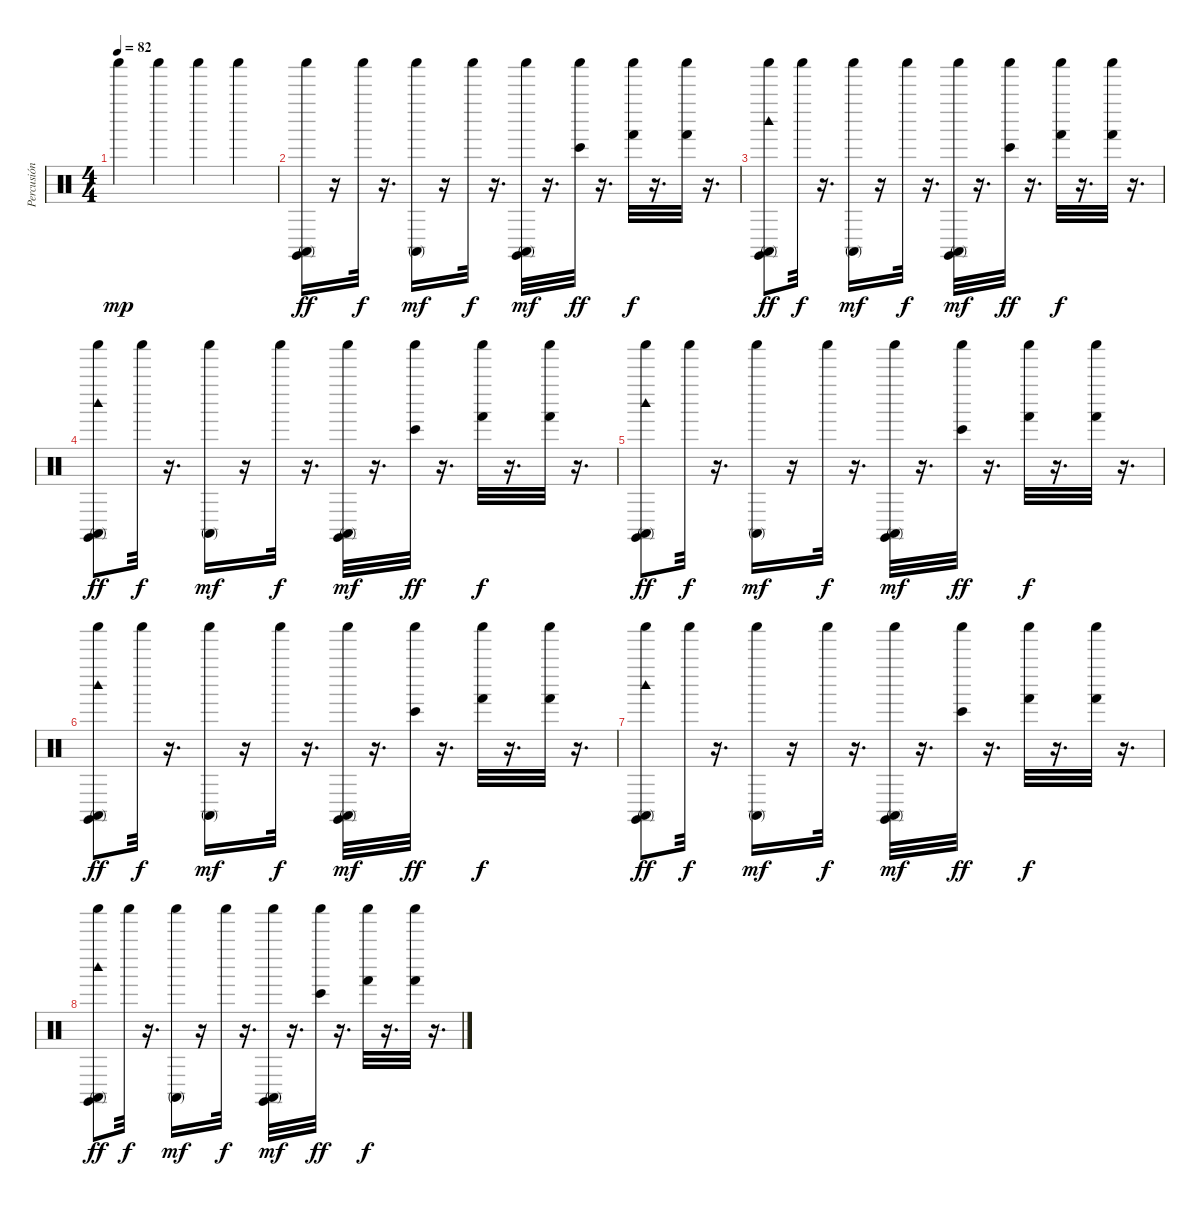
\track ("Percusión" "Percusión") {instrument percussion}
\staff {score}
\articulation defaults
\ts (4 4)
\tempo 82
\clef neutral
\ks c "Shaker (hit)".4{dy mp} "Shaker (hit)".4 "Shaker (hit)".4 "Shaker (hit)".4
|
("Conga high (mute)" "Shaker (hit)" "Claves (hit)").16{dy ff} r.16 "Shaker (hit)".32{dy f} r.16{d} ("Shaker (hit)" "Conga high (mute)").16{dy mf} r.16 "Shaker (hit)".32{dy f} r.16{d} ("Claves (hit)" "Shaker (hit)" "Conga high (mute)").32{dy mf} r.16{d} ("Shaker (hit)" "Bongo High (hit)").32{dy ff} r.16{d} ("Shaker (hit)" "Hand (hit)").32{dy f} r.16{d} ("Shaker (hit)" "Hand (hit)").32 r.16{d} |
("Woodblock high (hit)" "Conga high (mute)" "Shaker (hit)" "Claves (hit)").8{dy ff} "Shaker (hit)".32{dy f} r.16{d} ("Shaker (hit)" "Conga high (mute)").16{dy mf} r.16 "Shaker (hit)".32{dy f} r.16{d} ("Claves (hit)" "Shaker (hit)" "Conga high (mute)").32{dy mf} r.16{d} ("Shaker (hit)" "Bongo High (hit)").32{dy ff} r.16{d} ("Shaker (hit)" "Hand (hit)").32{dy f} r.16{d} ("Shaker (hit)" "Hand (hit)").32 r.16{d} |
("Woodblock high (hit)" "Conga high (mute)" "Shaker (hit)" "Claves (hit)").8{dy ff} "Shaker (hit)".32{dy f} r.16{d} ("Shaker (hit)" "Conga high (mute)").16{dy mf} r.16 "Shaker (hit)".32{dy f} r.16{d} ("Claves (hit)" "Shaker (hit)" "Conga high (mute)").32{dy mf} r.16{d} ("Shaker (hit)" "Bongo High (hit)").32{dy ff} r.16{d} ("Shaker (hit)" "Hand (hit)").32{dy f} r.16{d} ("Shaker (hit)" "Hand (hit)").32 r.16{d} |
("Woodblock high (hit)" "Conga high (mute)" "Shaker (hit)" "Claves (hit)").8{dy ff} "Shaker (hit)".32{dy f} r.16{d} ("Shaker (hit)" "Conga high (mute)").16{dy mf} r.16 "Shaker (hit)".32{dy f} r.16{d} ("Claves (hit)" "Shaker (hit)" "Conga high (mute)").32{dy mf} r.16{d} ("Shaker (hit)" "Bongo High (hit)").32{dy ff} r.16{d} ("Shaker (hit)" "Hand (hit)").32{dy f} r.16{d} ("Shaker (hit)" "Hand (hit)").32 r.16{d} |
("Woodblock high (hit)" "Conga high (mute)" "Shaker (hit)" "Claves (hit)").8{dy ff} "Shaker (hit)".32{dy f} r.16{d} ("Shaker (hit)" "Conga high (mute)").16{dy mf} r.16 "Shaker (hit)".32{dy f} r.16{d} ("Claves (hit)" "Shaker (hit)" "Conga high (mute)").32{dy mf} r.16{d} ("Shaker (hit)" "Bongo High (hit)").32{dy ff} r.16{d} ("Shaker (hit)" "Hand (hit)").32{dy f} r.16{d} ("Shaker (hit)" "Hand (hit)").32 r.16{d} |
("Woodblock high (hit)" "Conga high (mute)" "Shaker (hit)" "Claves (hit)").8{dy ff} "Shaker (hit)".32{dy f} r.16{d} ("Shaker (hit)" "Conga high (mute)").16{dy mf} r.16 "Shaker (hit)".32{dy f} r.16{d} ("Claves (hit)" "Shaker (hit)" "Conga high (mute)").32{dy mf} r.16{d} ("Shaker (hit)" "Bongo High (hit)").32{dy ff} r.16{d} ("Shaker (hit)" "Hand (hit)").32{dy f} r.16{d} ("Shaker (hit)" "Hand (hit)").32 r.16{d} |
("Woodblock high (hit)" "Conga high (mute)" "Shaker (hit)" "Claves (hit)").8{dy ff} "Shaker (hit)".32{dy f} r.16{d} ("Shaker (hit)" "Conga high (mute)").16{dy mf} r.16 "Shaker (hit)".32{dy f} r.16{d} ("Claves (hit)" "Shaker (hit)" "Conga high (mute)").32{dy mf} r.16{d} ("Shaker (hit)" "Bongo High (hit)").32{dy ff} r.16{d} ("Shaker (hit)" "Hand (hit)").32{dy f} r.16{d} ("Shaker (hit)" "Hand (hit)").32 r.16{d}
